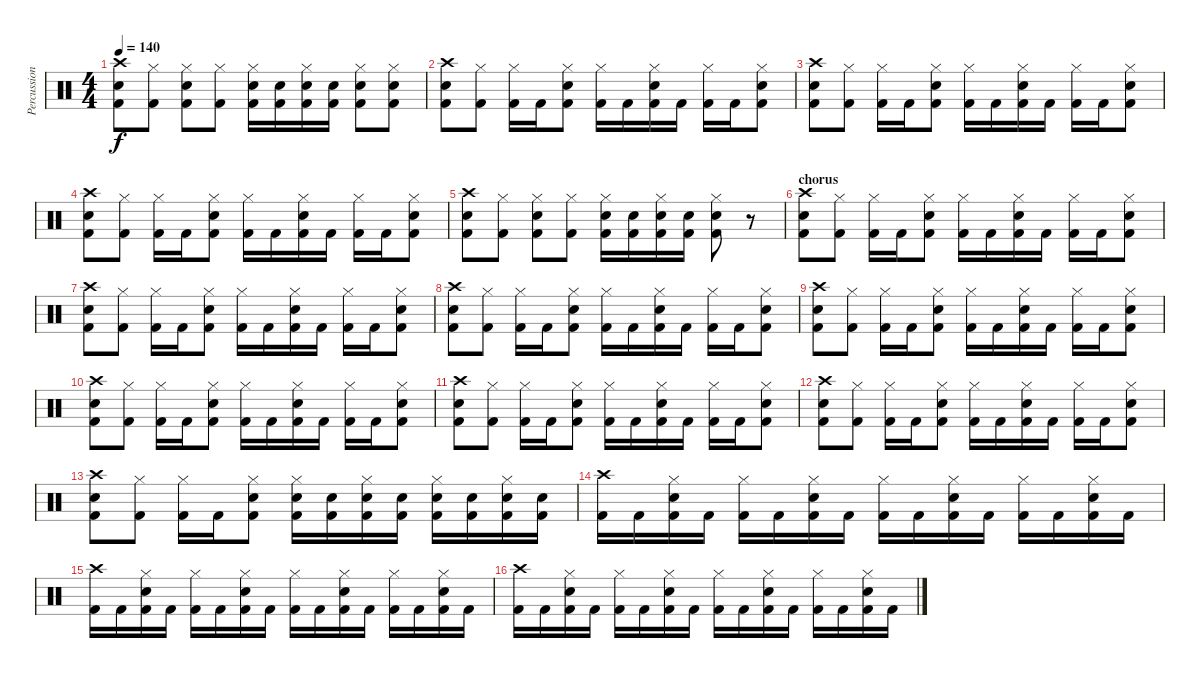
\track ("Percussion" "Percussion") {instrument percussion}
\staff {score}
\articulation defaults
\ts (4 4)
\tempo 140
\clef neutral
\ks aminor
("Crash high (hit)" "Snare (hit) 2" "Kick (hit) 2").8{dy f} ("Hi-Hat (closed)" "Kick (hit) 2").8 ("Hi-Hat (closed)" "Snare (hit) 2" "Kick (hit) 2").8 ("Hi-Hat (closed)" "Kick (hit) 2").8 ("Hi-Hat (closed)" "Snare (hit) 2" "Kick (hit) 2").16 ("Snare (hit) 2" "Kick (hit) 2").16 ("Hi-Hat (closed)" "Snare (hit) 2" "Kick (hit) 2").16 ("Snare (hit) 2" "Kick (hit) 2").16 ("Hi-Hat (closed)" "Snare (hit) 2" "Kick (hit) 2").8 ("Hi-Hat (closed)" "Snare (hit) 2" "Kick (hit) 2").8 |
("Crash high (hit)" "Snare (hit) 2" "Kick (hit) 2").8 ("Hi-Hat (closed)" "Kick (hit) 2").8 ("Hi-Hat (closed)" "Kick (hit) 2").16 "Kick (hit) 2".16 ("Hi-Hat (closed)" "Snare (hit) 2" "Kick (hit) 2").8 ("Hi-Hat (closed)" "Kick (hit) 2").16 "Kick (hit) 2".16 ("Hi-Hat (closed)" "Snare (hit) 2" "Kick (hit) 2").16 "Kick (hit) 2".16 ("Hi-Hat (closed)" "Kick (hit) 2").16 "Kick (hit) 2".16 ("Hi-Hat (closed)" "Snare (hit) 2" "Kick (hit) 2").8 |
("Crash high (hit)" "Snare (hit) 2" "Kick (hit) 2").8 ("Hi-Hat (closed)" "Kick (hit) 2").8 ("Hi-Hat (closed)" "Kick (hit) 2").16 "Kick (hit) 2".16 ("Hi-Hat (closed)" "Snare (hit) 2" "Kick (hit) 2").8 ("Hi-Hat (closed)" "Kick (hit) 2").16 "Kick (hit) 2".16 ("Hi-Hat (closed)" "Snare (hit) 2" "Kick (hit) 2").16 "Kick (hit) 2".16 ("Hi-Hat (closed)" "Kick (hit) 2").16 "Kick (hit) 2".16 ("Hi-Hat (closed)" "Snare (hit) 2" "Kick (hit) 2").8 |
("Crash high (hit)" "Snare (hit) 2" "Kick (hit) 2").8 ("Hi-Hat (closed)" "Kick (hit) 2").8 ("Hi-Hat (closed)" "Kick (hit) 2").16 "Kick (hit) 2".16 ("Hi-Hat (closed)" "Snare (hit) 2" "Kick (hit) 2").8 ("Hi-Hat (closed)" "Kick (hit) 2").16 "Kick (hit) 2".16 ("Hi-Hat (closed)" "Snare (hit) 2" "Kick (hit) 2").16 "Kick (hit) 2".16 ("Hi-Hat (closed)" "Kick (hit) 2").16 "Kick (hit) 2".16 ("Hi-Hat (closed)" "Snare (hit) 2" "Kick (hit) 2").8 |
("Crash high (hit)" "Snare (hit) 2" "Kick (hit) 2").8 ("Hi-Hat (closed)" "Kick (hit) 2").8 ("Hi-Hat (closed)" "Snare (hit) 2" "Kick (hit) 2").8 ("Hi-Hat (closed)" "Kick (hit) 2").8 ("Hi-Hat (closed)" "Snare (hit) 2" "Kick (hit) 2").16 ("Snare (hit) 2" "Kick (hit) 2").16 ("Hi-Hat (closed)" "Snare (hit) 2" "Kick (hit) 2").16 ("Snare (hit) 2" "Kick (hit) 2").16 ("Hi-Hat (closed)" "Snare (hit) 2" "Kick (hit) 2").8 r.8 |
\section ("" "chorus")
("Crash high (hit)" "Snare (hit) 2" "Kick (hit) 2").8 ("Hi-Hat (closed)" "Kick (hit) 2").8 ("Hi-Hat (closed)" "Kick (hit) 2").16 "Kick (hit) 2".16 ("Hi-Hat (closed)" "Snare (hit) 2" "Kick (hit) 2").8 ("Hi-Hat (closed)" "Kick (hit) 2").16 "Kick (hit) 2".16 ("Hi-Hat (closed)" "Snare (hit) 2" "Kick (hit) 2").16 "Kick (hit) 2".16 ("Hi-Hat (closed)" "Kick (hit) 2").16 "Kick (hit) 2".16 ("Hi-Hat (closed)" "Snare (hit) 2" "Kick (hit) 2").8 |
("Crash high (hit)" "Snare (hit) 2" "Kick (hit) 2").8 ("Hi-Hat (closed)" "Kick (hit) 2").8 ("Hi-Hat (closed)" "Kick (hit) 2").16 "Kick (hit) 2".16 ("Hi-Hat (closed)" "Snare (hit) 2" "Kick (hit) 2").8 ("Hi-Hat (closed)" "Kick (hit) 2").16 "Kick (hit) 2".16 ("Hi-Hat (closed)" "Snare (hit) 2" "Kick (hit) 2").16 "Kick (hit) 2".16 ("Hi-Hat (closed)" "Kick (hit) 2").16 "Kick (hit) 2".16 ("Hi-Hat (closed)" "Snare (hit) 2" "Kick (hit) 2").8 |
("Crash high (hit)" "Snare (hit) 2" "Kick (hit) 2").8 ("Hi-Hat (closed)" "Kick (hit) 2").8 ("Hi-Hat (closed)" "Kick (hit) 2").16 "Kick (hit) 2".16 ("Hi-Hat (closed)" "Snare (hit) 2" "Kick (hit) 2").8 ("Hi-Hat (closed)" "Kick (hit) 2").16 "Kick (hit) 2".16 ("Hi-Hat (closed)" "Snare (hit) 2" "Kick (hit) 2").16 "Kick (hit) 2".16 ("Hi-Hat (closed)" "Kick (hit) 2").16 "Kick (hit) 2".16 ("Hi-Hat (closed)" "Snare (hit) 2" "Kick (hit) 2").8 |
("Crash high (hit)" "Snare (hit) 2" "Kick (hit) 2").8 ("Hi-Hat (closed)" "Kick (hit) 2").8 ("Hi-Hat (closed)" "Kick (hit) 2").16 "Kick (hit) 2".16 ("Hi-Hat (closed)" "Snare (hit) 2" "Kick (hit) 2").8 ("Hi-Hat (closed)" "Kick (hit) 2").16 "Kick (hit) 2".16 ("Hi-Hat (closed)" "Snare (hit) 2" "Kick (hit) 2").16 "Kick (hit) 2".16 ("Hi-Hat (closed)" "Kick (hit) 2").16 "Kick (hit) 2".16 ("Hi-Hat (closed)" "Snare (hit) 2" "Kick (hit) 2").8 |
("Crash high (hit)" "Snare (hit) 2" "Kick (hit) 2").8 ("Hi-Hat (closed)" "Kick (hit) 2").8 ("Hi-Hat (closed)" "Kick (hit) 2").16 "Kick (hit) 2".16 ("Hi-Hat (closed)" "Snare (hit) 2" "Kick (hit) 2").8 ("Hi-Hat (closed)" "Kick (hit) 2").16 "Kick (hit) 2".16 ("Hi-Hat (closed)" "Snare (hit) 2" "Kick (hit) 2").16 "Kick (hit) 2".16 ("Hi-Hat (closed)" "Kick (hit) 2").16 "Kick (hit) 2".16 ("Hi-Hat (closed)" "Snare (hit) 2" "Kick (hit) 2").8 |
("Crash high (hit)" "Snare (hit) 2" "Kick (hit) 2").8 ("Hi-Hat (closed)" "Kick (hit) 2").8 ("Hi-Hat (closed)" "Kick (hit) 2").16 "Kick (hit) 2".16 ("Hi-Hat (closed)" "Snare (hit) 2" "Kick (hit) 2").8 ("Hi-Hat (closed)" "Kick (hit) 2").16 "Kick (hit) 2".16 ("Hi-Hat (closed)" "Snare (hit) 2" "Kick (hit) 2").16 "Kick (hit) 2".16 ("Hi-Hat (closed)" "Kick (hit) 2").16 "Kick (hit) 2".16 ("Hi-Hat (closed)" "Snare (hit) 2" "Kick (hit) 2").8 |
("Crash high (hit)" "Snare (hit) 2" "Kick (hit) 2").8 ("Hi-Hat (closed)" "Kick (hit) 2").8 ("Hi-Hat (closed)" "Kick (hit) 2").16 "Kick (hit) 2".16 ("Hi-Hat (closed)" "Snare (hit) 2" "Kick (hit) 2").8 ("Hi-Hat (closed)" "Kick (hit) 2").16 "Kick (hit) 2".16 ("Hi-Hat (closed)" "Snare (hit) 2" "Kick (hit) 2").16 "Kick (hit) 2".16 ("Hi-Hat (closed)" "Kick (hit) 2").16 "Kick (hit) 2".16 ("Hi-Hat (closed)" "Snare (hit) 2" "Kick (hit) 2").8 |
("Crash high (hit)" "Snare (hit) 2" "Kick (hit) 2").8 ("Hi-Hat (closed)" "Kick (hit) 2").8 ("Hi-Hat (closed)" "Kick (hit) 2").16 "Kick (hit) 2".16 ("Hi-Hat (closed)" "Snare (hit) 2" "Kick (hit) 2").8 ("Hi-Hat (closed)" "Snare (hit) 2" "Kick (hit) 2").16 ("Snare (hit) 2" "Kick (hit) 2").16 ("Hi-Hat (closed)" "Snare (hit) 2" "Kick (hit) 2").16 ("Snare (hit) 2" "Kick (hit) 2").16 ("Hi-Hat (closed)" "Snare (hit) 2" "Kick (hit) 2").16 ("Snare (hit) 2" "Kick (hit) 2").16 ("Hi-Hat (closed)" "Snare (hit) 2" "Kick (hit) 2").16 ("Snare (hit) 2" "Kick (hit) 2").16 |
("Crash high (hit)" "Kick (hit) 2").16 "Kick (hit) 2".16 ("Hi-Hat (closed)" "Snare (hit) 2" "Kick (hit) 2").16 "Kick (hit) 2".16 ("Hi-Hat (closed)" "Kick (hit) 2").16 "Kick (hit) 2".16 ("Hi-Hat (closed)" "Snare (hit) 2" "Kick (hit) 2").16 "Kick (hit) 2".16 ("Hi-Hat (closed)" "Kick (hit) 2").16 "Kick (hit) 2".16 ("Hi-Hat (closed)" "Snare (hit) 2" "Kick (hit) 2").16 "Kick (hit) 2".16 ("Hi-Hat (closed)" "Kick (hit) 2").16 "Kick (hit) 2".16 ("Hi-Hat (closed)" "Snare (hit) 2" "Kick (hit) 2").16 "Kick (hit) 2".16 |
("Crash high (hit)" "Kick (hit) 2").16 "Kick (hit) 2".16 ("Hi-Hat (closed)" "Snare (hit) 2" "Kick (hit) 2").16 "Kick (hit) 2".16 ("Hi-Hat (closed)" "Kick (hit) 2").16 "Kick (hit) 2".16 ("Hi-Hat (closed)" "Snare (hit) 2" "Kick (hit) 2").16 "Kick (hit) 2".16 ("Hi-Hat (closed)" "Kick (hit) 2").16 "Kick (hit) 2".16 ("Hi-Hat (closed)" "Snare (hit) 2" "Kick (hit) 2").16 "Kick (hit) 2".16 ("Hi-Hat (closed)" "Kick (hit) 2").16 "Kick (hit) 2".16 ("Hi-Hat (closed)" "Snare (hit) 2" "Kick (hit) 2").16 "Kick (hit) 2".16 |
("Crash high (hit)" "Kick (hit) 2").16 "Kick (hit) 2".16 ("Hi-Hat (closed)" "Snare (hit) 2" "Kick (hit) 2").16 "Kick (hit) 2".16 ("Hi-Hat (closed)" "Kick (hit) 2").16 "Kick (hit) 2".16 ("Hi-Hat (closed)" "Snare (hit) 2" "Kick (hit) 2").16 "Kick (hit) 2".16 ("Hi-Hat (closed)" "Kick (hit) 2").16 "Kick (hit) 2".16 ("Hi-Hat (closed)" "Snare (hit) 2" "Kick (hit) 2").16 "Kick (hit) 2".16 ("Hi-Hat (closed)" "Kick (hit) 2").16 "Kick (hit) 2".16 ("Hi-Hat (closed)" "Snare (hit) 2" "Kick (hit) 2").16 "Kick (hit) 2".16
